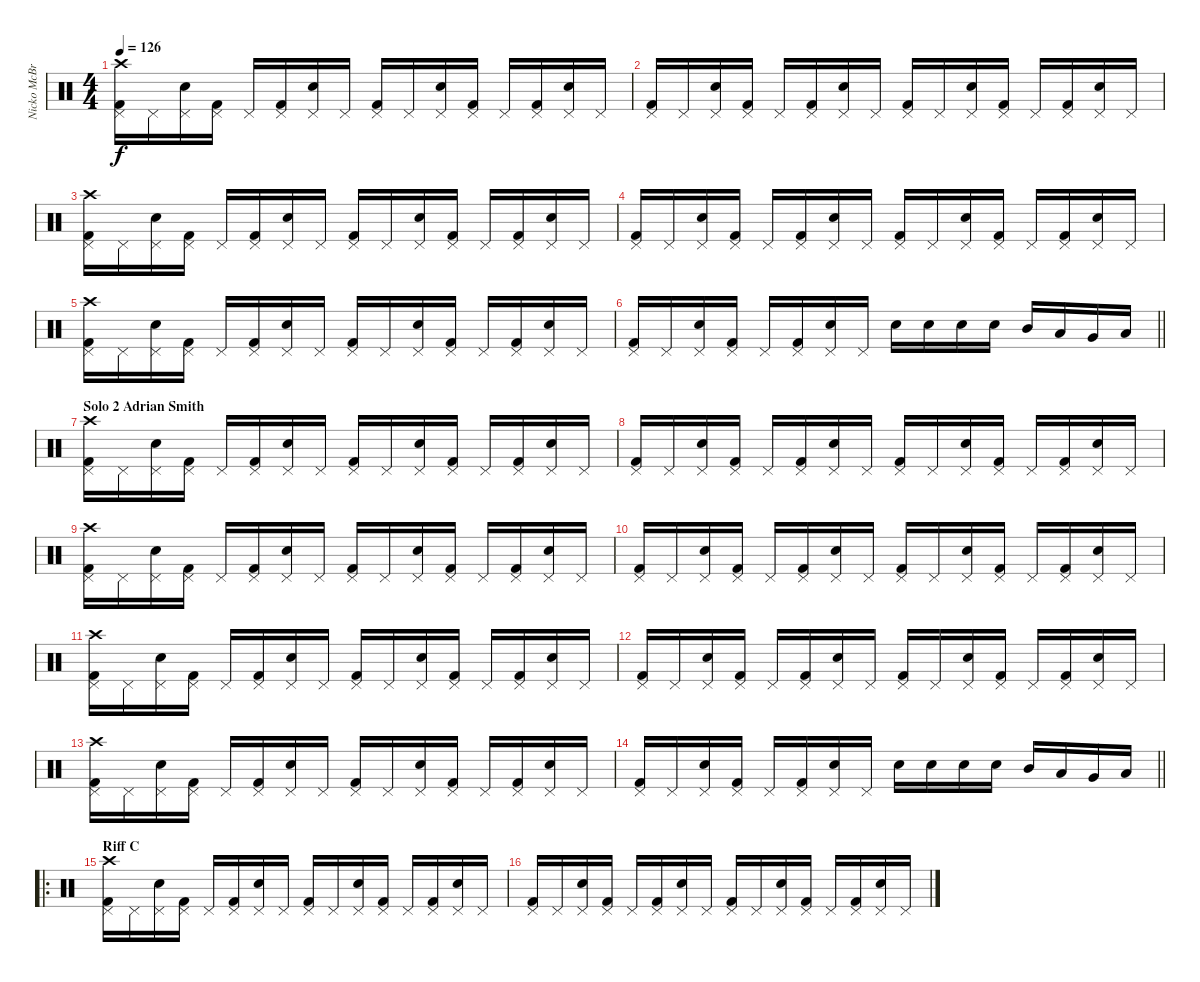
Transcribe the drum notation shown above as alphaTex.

\track ("Nicko McBrain" "Nicko McBr") {instrument percussion}
\staff {score}
\articulation defaults
\ts (4 4)
\tempo 126
\clef neutral
\ks c
("Kick (hit) 2" "Pedal Hi-Hat (hit)" "Crash high (hit)").16{dy f} "Pedal Hi-Hat (hit)".16 ("Snare (hit) 2" "Pedal Hi-Hat (hit)").16 ("Kick (hit) 2" "Pedal Hi-Hat (hit)").16 "Pedal Hi-Hat (hit)".16 ("Kick (hit) 2" "Pedal Hi-Hat (hit)").16 ("Snare (hit) 2" "Pedal Hi-Hat (hit)").16 "Pedal Hi-Hat (hit)".16 ("Kick (hit) 2" "Pedal Hi-Hat (hit)").16 "Pedal Hi-Hat (hit)".16 ("Snare (hit) 2" "Pedal Hi-Hat (hit)").16 ("Kick (hit) 2" "Pedal Hi-Hat (hit)").16 "Pedal Hi-Hat (hit)".16 ("Kick (hit) 2" "Pedal Hi-Hat (hit)").16 ("Snare (hit) 2" "Pedal Hi-Hat (hit)").16 "Pedal Hi-Hat (hit)".16 |
("Kick (hit) 2" "Pedal Hi-Hat (hit)").16 "Pedal Hi-Hat (hit)".16 ("Snare (hit) 2" "Pedal Hi-Hat (hit)").16 ("Kick (hit) 2" "Pedal Hi-Hat (hit)").16 "Pedal Hi-Hat (hit)".16 ("Kick (hit) 2" "Pedal Hi-Hat (hit)").16 ("Snare (hit) 2" "Pedal Hi-Hat (hit)").16 "Pedal Hi-Hat (hit)".16 ("Kick (hit) 2" "Pedal Hi-Hat (hit)").16 "Pedal Hi-Hat (hit)".16 ("Snare (hit) 2" "Pedal Hi-Hat (hit)").16 ("Kick (hit) 2" "Pedal Hi-Hat (hit)").16 "Pedal Hi-Hat (hit)".16 ("Kick (hit) 2" "Pedal Hi-Hat (hit)").16 ("Snare (hit) 2" "Pedal Hi-Hat (hit)").16 "Pedal Hi-Hat (hit)".16 |
("Kick (hit) 2" "Pedal Hi-Hat (hit)" "Crash high (hit)").16 "Pedal Hi-Hat (hit)".16 ("Snare (hit) 2" "Pedal Hi-Hat (hit)").16 ("Kick (hit) 2" "Pedal Hi-Hat (hit)").16 "Pedal Hi-Hat (hit)".16 ("Kick (hit) 2" "Pedal Hi-Hat (hit)").16 ("Snare (hit) 2" "Pedal Hi-Hat (hit)").16 "Pedal Hi-Hat (hit)".16 ("Kick (hit) 2" "Pedal Hi-Hat (hit)").16 "Pedal Hi-Hat (hit)".16 ("Snare (hit) 2" "Pedal Hi-Hat (hit)").16 ("Kick (hit) 2" "Pedal Hi-Hat (hit)").16 "Pedal Hi-Hat (hit)".16 ("Kick (hit) 2" "Pedal Hi-Hat (hit)").16 ("Snare (hit) 2" "Pedal Hi-Hat (hit)").16 "Pedal Hi-Hat (hit)".16 |
("Kick (hit) 2" "Pedal Hi-Hat (hit)").16 "Pedal Hi-Hat (hit)".16 ("Snare (hit) 2" "Pedal Hi-Hat (hit)").16 ("Kick (hit) 2" "Pedal Hi-Hat (hit)").16 "Pedal Hi-Hat (hit)".16 ("Kick (hit) 2" "Pedal Hi-Hat (hit)").16 ("Snare (hit) 2" "Pedal Hi-Hat (hit)").16 "Pedal Hi-Hat (hit)".16 ("Kick (hit) 2" "Pedal Hi-Hat (hit)").16 "Pedal Hi-Hat (hit)".16 ("Snare (hit) 2" "Pedal Hi-Hat (hit)").16 ("Kick (hit) 2" "Pedal Hi-Hat (hit)").16 "Pedal Hi-Hat (hit)".16 ("Kick (hit) 2" "Pedal Hi-Hat (hit)").16 ("Snare (hit) 2" "Pedal Hi-Hat (hit)").16 "Pedal Hi-Hat (hit)".16 |
("Kick (hit) 2" "Pedal Hi-Hat (hit)" "Crash high (hit)").16 "Pedal Hi-Hat (hit)".16 ("Snare (hit) 2" "Pedal Hi-Hat (hit)").16 ("Kick (hit) 2" "Pedal Hi-Hat (hit)").16 "Pedal Hi-Hat (hit)".16 ("Kick (hit) 2" "Pedal Hi-Hat (hit)").16 ("Snare (hit) 2" "Pedal Hi-Hat (hit)").16 "Pedal Hi-Hat (hit)".16 ("Kick (hit) 2" "Pedal Hi-Hat (hit)").16 "Pedal Hi-Hat (hit)".16 ("Snare (hit) 2" "Pedal Hi-Hat (hit)").16 ("Kick (hit) 2" "Pedal Hi-Hat (hit)").16 "Pedal Hi-Hat (hit)".16 ("Kick (hit) 2" "Pedal Hi-Hat (hit)").16 ("Snare (hit) 2" "Pedal Hi-Hat (hit)").16 "Pedal Hi-Hat (hit)".16 |
\barLineRight lightlight
("Kick (hit) 2" "Pedal Hi-Hat (hit)").16 "Pedal Hi-Hat (hit)".16 ("Snare (hit) 2" "Pedal Hi-Hat (hit)").16 ("Kick (hit) 2" "Pedal Hi-Hat (hit)").16 "Pedal Hi-Hat (hit)".16 ("Kick (hit) 2" "Pedal Hi-Hat (hit)").16 ("Snare (hit) 2" "Pedal Hi-Hat (hit)").16 "Pedal Hi-Hat (hit)".16 "Snare (hit) 2".16 "Snare (hit) 2".16 "Snare (hit) 2".16 "Snare (hit) 2".16 "Mid Tom (hit)".16 "Low Tom (hit)".16 "Very Low Tom (hit)".16 "Low Floor Tom (hit)".16 |
\section ("" "Solo 2 Adrian Smith")
("Kick (hit) 2" "Pedal Hi-Hat (hit)" "Crash high (hit)").16 "Pedal Hi-Hat (hit)".16 ("Snare (hit) 2" "Pedal Hi-Hat (hit)").16 ("Kick (hit) 2" "Pedal Hi-Hat (hit)").16 "Pedal Hi-Hat (hit)".16 ("Kick (hit) 2" "Pedal Hi-Hat (hit)").16 ("Snare (hit) 2" "Pedal Hi-Hat (hit)").16 "Pedal Hi-Hat (hit)".16 ("Kick (hit) 2" "Pedal Hi-Hat (hit)").16 "Pedal Hi-Hat (hit)".16 ("Snare (hit) 2" "Pedal Hi-Hat (hit)").16 ("Kick (hit) 2" "Pedal Hi-Hat (hit)").16 "Pedal Hi-Hat (hit)".16 ("Kick (hit) 2" "Pedal Hi-Hat (hit)").16 ("Snare (hit) 2" "Pedal Hi-Hat (hit)").16 "Pedal Hi-Hat (hit)".16 |
("Kick (hit) 2" "Pedal Hi-Hat (hit)").16 "Pedal Hi-Hat (hit)".16 ("Snare (hit) 2" "Pedal Hi-Hat (hit)").16 ("Kick (hit) 2" "Pedal Hi-Hat (hit)").16 "Pedal Hi-Hat (hit)".16 ("Kick (hit) 2" "Pedal Hi-Hat (hit)").16 ("Snare (hit) 2" "Pedal Hi-Hat (hit)").16 "Pedal Hi-Hat (hit)".16 ("Kick (hit) 2" "Pedal Hi-Hat (hit)").16 "Pedal Hi-Hat (hit)".16 ("Snare (hit) 2" "Pedal Hi-Hat (hit)").16 ("Kick (hit) 2" "Pedal Hi-Hat (hit)").16 "Pedal Hi-Hat (hit)".16 ("Kick (hit) 2" "Pedal Hi-Hat (hit)").16 ("Snare (hit) 2" "Pedal Hi-Hat (hit)").16 "Pedal Hi-Hat (hit)".16 |
("Kick (hit) 2" "Pedal Hi-Hat (hit)" "Crash high (hit)").16 "Pedal Hi-Hat (hit)".16 ("Snare (hit) 2" "Pedal Hi-Hat (hit)").16 ("Kick (hit) 2" "Pedal Hi-Hat (hit)").16 "Pedal Hi-Hat (hit)".16 ("Kick (hit) 2" "Pedal Hi-Hat (hit)").16 ("Snare (hit) 2" "Pedal Hi-Hat (hit)").16 "Pedal Hi-Hat (hit)".16 ("Kick (hit) 2" "Pedal Hi-Hat (hit)").16 "Pedal Hi-Hat (hit)".16 ("Snare (hit) 2" "Pedal Hi-Hat (hit)").16 ("Kick (hit) 2" "Pedal Hi-Hat (hit)").16 "Pedal Hi-Hat (hit)".16 ("Kick (hit) 2" "Pedal Hi-Hat (hit)").16 ("Snare (hit) 2" "Pedal Hi-Hat (hit)").16 "Pedal Hi-Hat (hit)".16 |
("Kick (hit) 2" "Pedal Hi-Hat (hit)").16 "Pedal Hi-Hat (hit)".16 ("Snare (hit) 2" "Pedal Hi-Hat (hit)").16 ("Kick (hit) 2" "Pedal Hi-Hat (hit)").16 "Pedal Hi-Hat (hit)".16 ("Kick (hit) 2" "Pedal Hi-Hat (hit)").16 ("Snare (hit) 2" "Pedal Hi-Hat (hit)").16 "Pedal Hi-Hat (hit)".16 ("Kick (hit) 2" "Pedal Hi-Hat (hit)").16 "Pedal Hi-Hat (hit)".16 ("Snare (hit) 2" "Pedal Hi-Hat (hit)").16 ("Kick (hit) 2" "Pedal Hi-Hat (hit)").16 "Pedal Hi-Hat (hit)".16 ("Kick (hit) 2" "Pedal Hi-Hat (hit)").16 ("Snare (hit) 2" "Pedal Hi-Hat (hit)").16 "Pedal Hi-Hat (hit)".16 |
("Kick (hit) 2" "Pedal Hi-Hat (hit)" "Crash high (hit)").16 "Pedal Hi-Hat (hit)".16 ("Snare (hit) 2" "Pedal Hi-Hat (hit)").16 ("Kick (hit) 2" "Pedal Hi-Hat (hit)").16 "Pedal Hi-Hat (hit)".16 ("Kick (hit) 2" "Pedal Hi-Hat (hit)").16 ("Snare (hit) 2" "Pedal Hi-Hat (hit)").16 "Pedal Hi-Hat (hit)".16 ("Kick (hit) 2" "Pedal Hi-Hat (hit)").16 "Pedal Hi-Hat (hit)".16 ("Snare (hit) 2" "Pedal Hi-Hat (hit)").16 ("Kick (hit) 2" "Pedal Hi-Hat (hit)").16 "Pedal Hi-Hat (hit)".16 ("Kick (hit) 2" "Pedal Hi-Hat (hit)").16 ("Snare (hit) 2" "Pedal Hi-Hat (hit)").16 "Pedal Hi-Hat (hit)".16 |
("Kick (hit) 2" "Pedal Hi-Hat (hit)").16 "Pedal Hi-Hat (hit)".16 ("Snare (hit) 2" "Pedal Hi-Hat (hit)").16 ("Kick (hit) 2" "Pedal Hi-Hat (hit)").16 "Pedal Hi-Hat (hit)".16 ("Kick (hit) 2" "Pedal Hi-Hat (hit)").16 ("Snare (hit) 2" "Pedal Hi-Hat (hit)").16 "Pedal Hi-Hat (hit)".16 ("Kick (hit) 2" "Pedal Hi-Hat (hit)").16 "Pedal Hi-Hat (hit)".16 ("Snare (hit) 2" "Pedal Hi-Hat (hit)").16 ("Kick (hit) 2" "Pedal Hi-Hat (hit)").16 "Pedal Hi-Hat (hit)".16 ("Kick (hit) 2" "Pedal Hi-Hat (hit)").16 ("Snare (hit) 2" "Pedal Hi-Hat (hit)").16 "Pedal Hi-Hat (hit)".16 |
("Kick (hit) 2" "Pedal Hi-Hat (hit)" "Crash high (hit)").16 "Pedal Hi-Hat (hit)".16 ("Snare (hit) 2" "Pedal Hi-Hat (hit)").16 ("Kick (hit) 2" "Pedal Hi-Hat (hit)").16 "Pedal Hi-Hat (hit)".16 ("Kick (hit) 2" "Pedal Hi-Hat (hit)").16 ("Snare (hit) 2" "Pedal Hi-Hat (hit)").16 "Pedal Hi-Hat (hit)".16 ("Kick (hit) 2" "Pedal Hi-Hat (hit)").16 "Pedal Hi-Hat (hit)".16 ("Snare (hit) 2" "Pedal Hi-Hat (hit)").16 ("Kick (hit) 2" "Pedal Hi-Hat (hit)").16 "Pedal Hi-Hat (hit)".16 ("Kick (hit) 2" "Pedal Hi-Hat (hit)").16 ("Snare (hit) 2" "Pedal Hi-Hat (hit)").16 "Pedal Hi-Hat (hit)".16 |
\barLineRight lightlight
("Kick (hit) 2" "Pedal Hi-Hat (hit)").16 "Pedal Hi-Hat (hit)".16 ("Snare (hit) 2" "Pedal Hi-Hat (hit)").16 ("Kick (hit) 2" "Pedal Hi-Hat (hit)").16 "Pedal Hi-Hat (hit)".16 ("Kick (hit) 2" "Pedal Hi-Hat (hit)").16 ("Snare (hit) 2" "Pedal Hi-Hat (hit)").16 "Pedal Hi-Hat (hit)".16 "Snare (hit) 2".16 "Snare (hit) 2".16 "Snare (hit) 2".16 "Snare (hit) 2".16 "Mid Tom (hit)".16 "Low Tom (hit)".16 "Very Low Tom (hit)".16 "Low Floor Tom (hit)".16 |
\ro
\section ("" "Riff C")
("Kick (hit) 2" "Pedal Hi-Hat (hit)" "Crash high (hit)").16 "Pedal Hi-Hat (hit)".16 ("Snare (hit) 2" "Pedal Hi-Hat (hit)").16 ("Kick (hit) 2" "Pedal Hi-Hat (hit)").16 "Pedal Hi-Hat (hit)".16 ("Kick (hit) 2" "Pedal Hi-Hat (hit)").16 ("Snare (hit) 2" "Pedal Hi-Hat (hit)").16 "Pedal Hi-Hat (hit)".16 ("Kick (hit) 2" "Pedal Hi-Hat (hit)").16 "Pedal Hi-Hat (hit)".16 ("Snare (hit) 2" "Pedal Hi-Hat (hit)").16 ("Kick (hit) 2" "Pedal Hi-Hat (hit)").16 "Pedal Hi-Hat (hit)".16 ("Kick (hit) 2" "Pedal Hi-Hat (hit)").16 ("Snare (hit) 2" "Pedal Hi-Hat (hit)").16 "Pedal Hi-Hat (hit)".16 |
("Kick (hit) 2" "Pedal Hi-Hat (hit)").16 "Pedal Hi-Hat (hit)".16 ("Snare (hit) 2" "Pedal Hi-Hat (hit)").16 ("Kick (hit) 2" "Pedal Hi-Hat (hit)").16 "Pedal Hi-Hat (hit)".16 ("Kick (hit) 2" "Pedal Hi-Hat (hit)").16 ("Snare (hit) 2" "Pedal Hi-Hat (hit)").16 "Pedal Hi-Hat (hit)".16 ("Kick (hit) 2" "Pedal Hi-Hat (hit)").16 "Pedal Hi-Hat (hit)".16 ("Snare (hit) 2" "Pedal Hi-Hat (hit)").16 ("Kick (hit) 2" "Pedal Hi-Hat (hit)").16 "Pedal Hi-Hat (hit)".16 ("Kick (hit) 2" "Pedal Hi-Hat (hit)").16 ("Snare (hit) 2" "Pedal Hi-Hat (hit)").16 "Pedal Hi-Hat (hit)".16
